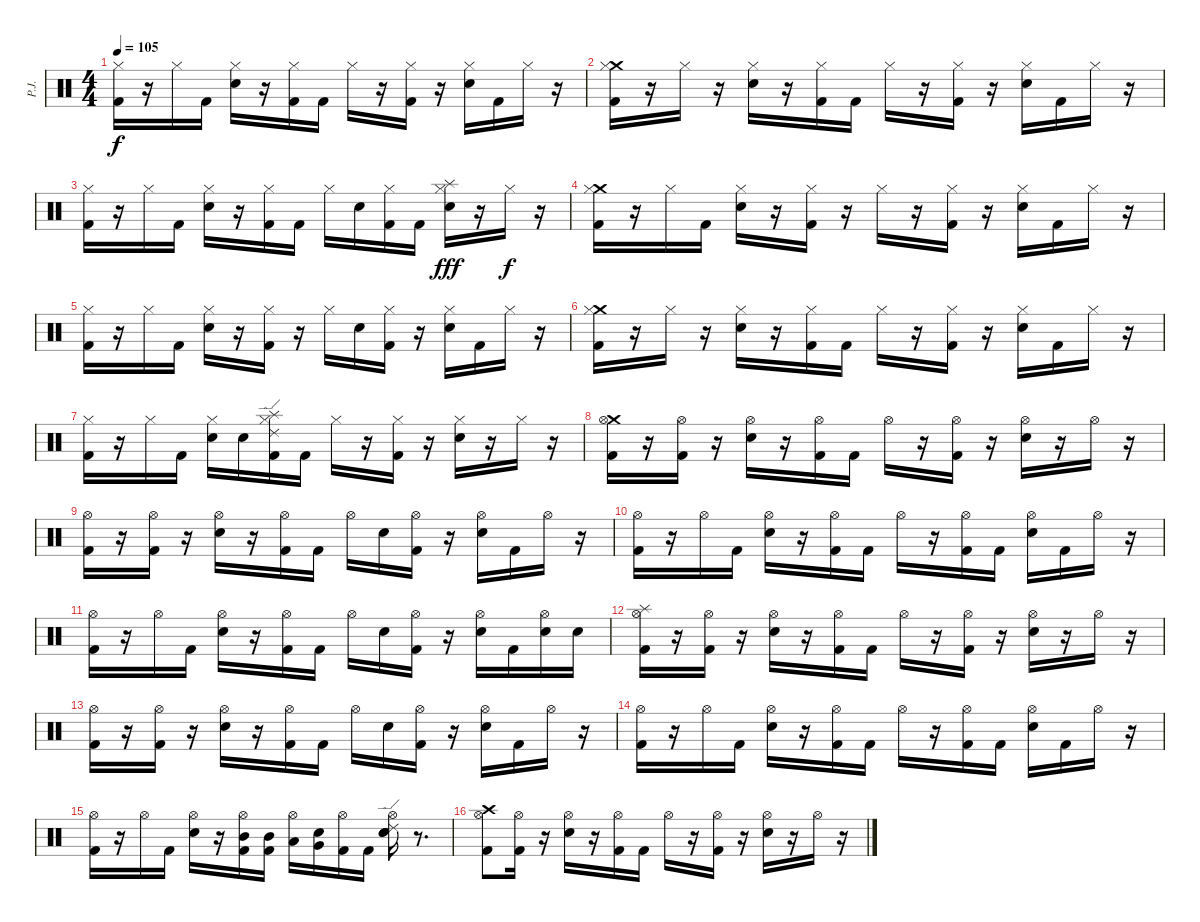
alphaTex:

\track ("P.J." "P.J.") {instrument percussion}
\staff {score}
\articulation defaults
\ts (4 4)
\tempo 105
\clef neutral
\ks c
("Kick (hit) 2" "Hi-Hat (closed)").16{dy f} r.16 "Hi-Hat (closed)".16 "Kick (hit) 2".16 ("Hi-Hat (closed)" "Electric Snare (hit)").16 r.16 ("Kick (hit) 2" "Hi-Hat (closed)").16 "Kick (hit) 2".16 "Hi-Hat (closed)".16 r.16 ("Kick (hit) 2" "Hi-Hat (closed)").16 r.16 ("Hi-Hat (closed)" "Electric Snare (hit)").16 "Kick (hit) 2".16 "Hi-Hat (closed)".16 r.16 |
("Kick (hit) 2" "Crash medium (hit)" "Hi-Hat (closed)").16 r.16 "Hi-Hat (closed)".16 r.16 ("Electric Snare (hit)" "Hi-Hat (closed)").16 r.16 ("Kick (hit) 2" "Hi-Hat (closed)").16 "Kick (hit) 2".16 "Hi-Hat (closed)".16 r.16 ("Kick (hit) 2" "Hi-Hat (closed)").16 r.16 ("Hi-Hat (closed)" "Electric Snare (hit)").16 "Kick (hit) 2".16 "Hi-Hat (closed)".16 r.16 |
("Kick (hit) 2" "Hi-Hat (closed)").16 r.16 "Hi-Hat (closed)".16 "Kick (hit) 2".16 ("Hi-Hat (closed)" "Electric Snare (hit)").16 r.16 ("Kick (hit) 2" "Hi-Hat (closed)").16 "Kick (hit) 2".16 "Hi-Hat (closed)".16 "Electric Snare (hit)".16 ("Kick (hit) 2" "Hi-Hat (closed)").16 "Kick (hit) 2".16 ("Hi-Hat (closed)" "Electric Snare (hit)" "Splash (hit)").16{dy fff} r.16 "Hi-Hat (closed)".16{dy f} r.16 |
("Kick (hit) 2" "Crash medium (hit)" "Hi-Hat (closed)").16 r.16 "Hi-Hat (closed)".16 "Kick (hit) 2".16 ("Hi-Hat (closed)" "Electric Snare (hit)").16 r.16 ("Hi-Hat (closed)" "Kick (hit) 2").16 r.16 "Hi-Hat (closed)".16 r.16 ("Kick (hit) 2" "Hi-Hat (closed)").16 r.16 ("Hi-Hat (closed)" "Electric Snare (hit)").16 "Kick (hit) 2".16 "Hi-Hat (closed)".16 r.16 |
("Hi-Hat (closed)" "Kick (hit) 2").16 r.16 "Hi-Hat (closed)".16 "Kick (hit) 2".16 ("Electric Snare (hit)" "Hi-Hat (closed)").16 r.16 ("Kick (hit) 2" "Hi-Hat (closed)").16 r.16 "Hi-Hat (closed)".16 "Electric Snare (hit)".16 ("Hi-Hat (closed)" "Kick (hit) 2").16 r.16 ("Electric Snare (hit)" "Hi-Hat (closed)").16 "Kick (hit) 2".16 "Hi-Hat (closed)".16 r.16 |
("Kick (hit) 2" "Crash medium (hit)" "Hi-Hat (closed)").16 r.16 "Hi-Hat (closed)".16 r.16 ("Electric Snare (hit)" "Hi-Hat (closed)").16 r.16 ("Kick (hit) 2" "Hi-Hat (closed)").16 "Kick (hit) 2".16 "Hi-Hat (closed)".16 r.16 ("Hi-Hat (closed)" "Kick (hit) 2").16 r.16 ("Electric Snare (hit)" "Hi-Hat (closed)").16 "Kick (hit) 2".16 "Hi-Hat (closed)".16 r.16 |
("Kick (hit) 2" "Hi-Hat (closed)").16 r.16 "Hi-Hat (closed)".16 "Kick (hit) 2".16 ("Electric Snare (hit)" "Hi-Hat (closed)").16 "Electric Snare (hit)".16 ("Splash (hit)" "Ride (edge) 2" "Kick (hit) 2" "Hi-Hat (closed)").16 "Kick (hit) 2".16 "Hi-Hat (closed)".16 r.16 ("Kick (hit) 2" "Hi-Hat (closed)").16 r.16 ("Hi-Hat (closed)" "Electric Snare (hit)").16 r.16 "Hi-Hat (closed)".16 r.16 |
("Kick (hit) 2" "Crash medium (hit)" "Hi-Hat (open)").16 r.16 ("Kick (hit) 2" "Hi-Hat (open)").16 r.16 ("Electric Snare (hit)" "Hi-Hat (open)").16 r.16 ("Kick (hit) 2" "Hi-Hat (open)").16 "Kick (hit) 2".16 "Hi-Hat (open)".16 r.16 ("Kick (hit) 2" "Hi-Hat (open)").16 r.16 ("Electric Snare (hit)" "Hi-Hat (open)").16 r.16 "Hi-Hat (open)".16 r.16 |
("Hi-Hat (open)" "Kick (hit) 2").16 r.16 ("Kick (hit) 2" "Hi-Hat (open)").16 r.16 ("Hi-Hat (open)" "Electric Snare (hit)").16 r.16 ("Kick (hit) 2" "Hi-Hat (open)").16 "Kick (hit) 2".16 "Hi-Hat (open)".16 "Electric Snare (hit)".16 ("Kick (hit) 2" "Hi-Hat (open)").16 r.16 ("Electric Snare (hit)" "Hi-Hat (open)").16 "Kick (hit) 2".16 "Hi-Hat (open)".16 r.16 |
("Kick (hit) 2" "Hi-Hat (open)").16 r.16 "Hi-Hat (open)".16 "Kick (hit) 2".16 ("Hi-Hat (open)" "Electric Snare (hit)").16 r.16 ("Kick (hit) 2" "Hi-Hat (open)").16 "Kick (hit) 2".16 "Hi-Hat (open)".16 r.16 ("Hi-Hat (open)" "Kick (hit) 2").16 "Kick (hit) 2".16 ("Hi-Hat (open)" "Electric Snare (hit)").16 "Kick (hit) 2".16 "Hi-Hat (open)".16 r.16 |
("Kick (hit) 2" "Hi-Hat (open)").16 r.16 "Hi-Hat (open)".16 "Kick (hit) 2".16 ("Hi-Hat (open)" "Electric Snare (hit)").16 r.16 ("Kick (hit) 2" "Hi-Hat (open)").16 "Kick (hit) 2".16 "Hi-Hat (open)".16 "Electric Snare (hit)".16 ("Kick (hit) 2" "Hi-Hat (open)").16 r.16 ("Hi-Hat (open)" "Electric Snare (hit)").16 "Kick (hit) 2".16 ("Hi-Hat (open)" "Electric Snare (hit)").16 "Electric Snare (hit)".16 |
("Kick (hit) 2" "Hi-Hat (open)" "Splash (hit)").16 r.16 ("Kick (hit) 2" "Hi-Hat (open)").16 r.16 ("Electric Snare (hit)" "Hi-Hat (open)").16 r.16 ("Hi-Hat (open)" "Kick (hit) 2").16 "Kick (hit) 2".16 "Hi-Hat (open)".16 r.16 ("Kick (hit) 2" "Hi-Hat (open)").16 r.16 ("Electric Snare (hit)" "Hi-Hat (open)").16 r.16 "Hi-Hat (open)".16 r.16 |
("Hi-Hat (open)" "Kick (hit) 2").16 r.16 ("Kick (hit) 2" "Hi-Hat (open)").16 r.16 ("Electric Snare (hit)" "Hi-Hat (open)").16 r.16 ("Kick (hit) 2" "Hi-Hat (open)").16 "Kick (hit) 2".16 "Hi-Hat (open)".16 "Electric Snare (hit)".16 ("Kick (hit) 2" "Hi-Hat (open)").16 r.16 ("Hi-Hat (open)" "Electric Snare (hit)").16 "Kick (hit) 2".16 "Hi-Hat (open)".16 r.16 |
("Kick (hit) 2" "Hi-Hat (open)").16 r.16 "Hi-Hat (open)".16 "Kick (hit) 2".16 ("Electric Snare (hit)" "Hi-Hat (open)").16 r.16 ("Kick (hit) 2" "Hi-Hat (open)").16 "Kick (hit) 2".16 "Hi-Hat (open)".16 r.16 ("Kick (hit) 2" "Hi-Hat (open)").16 "Kick (hit) 2".16 ("Hi-Hat (open)" "Electric Snare (hit)").16 "Kick (hit) 2".16 "Hi-Hat (open)".16 r.16 |
("Kick (hit) 2" "Hi-Hat (open)").16 r.16 "Hi-Hat (open)".16 "Kick (hit) 2".16 ("Hi-Hat (open)" "Electric Snare (hit)").16 r.16 ("Kick (hit) 2" "Hi-Hat (open)" "Mid Tom (hit)").16 ("Kick (hit) 2" "Mid Tom (hit)").16 ("Low Tom (hit)" "Hi-Hat (open)").16 ("Very Low Tom (hit)" "Electric Snare (hit)").16 ("Hi-Hat (open)" "Kick (hit) 2").16 "Kick (hit) 2".16 ("Electric Snare (hit)" "Hi-Hat (open)" "Ride (edge) 2" "Snare (hit) 2").16 r.8{d} |
("Crash high (hit)" "Hi-Hat (open)" "Kick (hit) 2").8 ("Hi-Hat (open)" "Kick (hit) 2").16 r.16 ("Electric Snare (hit)" "Hi-Hat (open)").16 r.16 ("Hi-Hat (open)" "Kick (hit) 2").16 "Kick (hit) 2".16 "Hi-Hat (open)".16 r.16 ("Kick (hit) 2" "Hi-Hat (open)").16 r.16 ("Electric Snare (hit)" "Hi-Hat (open)").16 r.16 "Hi-Hat (open)".16 r.16
